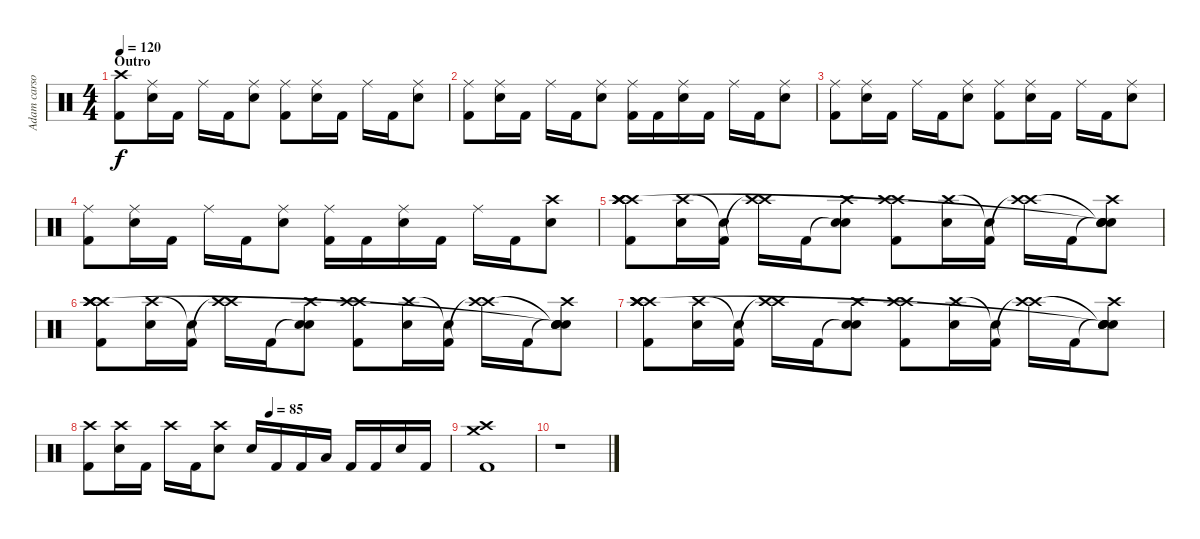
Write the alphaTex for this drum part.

\track ("Adam carson" "Adam carso") {instrument percussion}
\staff {score}
\articulation defaults
\ts (4 4)
\section ("" "Outro")
\tempo 120
\clef neutral
\ks c
("Kick (hit) 2" "Crash high (hit)").8{dy f} ("Ride (middle)" "Snare (hit) 2").16 "Kick (hit) 2".16 "Ride (middle)".16 "Kick (hit) 2".16 ("Ride (middle)" "Snare (hit) 2").8 ("Kick (hit) 2" "Ride (middle)").8 ("Ride (middle)" "Snare (hit) 2").16 "Kick (hit) 2".16 "Ride (middle)".16 "Kick (hit) 2".16 ("Ride (middle)" "Snare (hit) 2").8 |
("Kick (hit) 2" "Ride (middle)").8 ("Ride (middle)" "Snare (hit) 2").16 "Kick (hit) 2".16 "Ride (middle)".16 "Kick (hit) 2".16 ("Ride (middle)" "Snare (hit) 2").8 ("Kick (hit) 2" "Ride (middle)").16 "Kick (hit) 2".16 ("Ride (middle)" "Snare (hit) 2").16 "Kick (hit) 2".16 "Ride (middle)".16 "Kick (hit) 2".16 ("Ride (middle)" "Snare (hit) 2").8 |
("Kick (hit) 2" "Ride (middle)").8 ("Ride (middle)" "Snare (hit) 2").16 "Kick (hit) 2".16 "Ride (middle)".16 "Kick (hit) 2".16 ("Ride (middle)" "Snare (hit) 2").8 ("Kick (hit) 2" "Ride (middle)").8 ("Ride (middle)" "Snare (hit) 2").16 "Kick (hit) 2".16 "Ride (middle)".16 "Kick (hit) 2".16 ("Ride (middle)" "Snare (hit) 2").8 |
("Kick (hit) 2" "Ride (middle)").8 ("Ride (middle)" "Snare (hit) 2").16 "Kick (hit) 2".16 "Ride (middle)".16 "Kick (hit) 2".16 ("Ride (middle)" "Snare (hit) 2").8 ("Kick (hit) 2" "Ride (middle)").16 "Kick (hit) 2".16 ("Ride (middle)" "Snare (hit) 2").16 "Kick (hit) 2".16 "Ride (middle)".16 "Kick (hit) 2".16 ("Crash high (hit)" "Snare (hit) 2").8 |
("Kick (hit) 2" "Crash high (hit)" "Crash high (hit)" "Crash high (hit)" "Crash high (hit)").8 ("Snare (hit) 2" "Crash high (hit)").16 ("Kick (hit) 2" "Snare (hit)"{t}).16 ("Crash high (hit)"{t} "Crash high (hit)").16 "Kick (hit) 2".16 ("Snare (hit)"{t} "Snare (hit) 2" "Crash high (hit)").8 ("Kick (hit) 2" "Crash high (hit)" "Crash high (hit)").8 ("Snare (hit) 2" "Crash high (hit)").16 ("Kick (hit) 2" "Snare (hit)"{t}).16 ("Crash high (hit)"{t} "Crash high (hit)").16 "Kick (hit) 2".16 ("Snare (hit)"{t} "Snare (hit)"{t} "Snare (hit) 2" "Crash high (hit)" "Snare (hit)"{t}).8 |
("Kick (hit) 2" "Crash high (hit)" "Crash high (hit)" "Crash high (hit)" "Crash high (hit)").8 ("Snare (hit) 2" "Crash high (hit)").16 ("Kick (hit) 2" "Snare (hit)"{t}).16 ("Crash high (hit)"{t} "Crash high (hit)").16 "Kick (hit) 2".16 ("Snare (hit)"{t} "Snare (hit) 2" "Crash high (hit)").8 ("Kick (hit) 2" "Crash high (hit)" "Crash high (hit)").8 ("Snare (hit) 2" "Crash high (hit)").16 ("Kick (hit) 2" "Snare (hit)"{t}).16 ("Crash high (hit)"{t} "Crash high (hit)").16 "Kick (hit) 2".16 ("Snare (hit)"{t} "Snare (hit)"{t} "Snare (hit) 2" "Crash high (hit)" "Snare (hit)"{t}).8 |
("Kick (hit) 2" "Crash high (hit)" "Crash high (hit)" "Crash high (hit)" "Crash high (hit)").8 ("Snare (hit) 2" "Crash high (hit)").16 ("Kick (hit) 2" "Snare (hit)"{t}).16 ("Crash high (hit)"{t} "Crash high (hit)").16 "Kick (hit) 2".16 ("Snare (hit)"{t} "Snare (hit) 2" "Crash high (hit)").8 ("Kick (hit) 2" "Crash high (hit)" "Crash high (hit)").8 ("Snare (hit) 2" "Crash high (hit)").16 ("Kick (hit) 2" "Snare (hit)"{t}).16 ("Crash high (hit)"{t} "Crash high (hit)").16 "Kick (hit) 2".16 ("Snare (hit)"{t} "Snare (hit)"{t} "Snare (hit) 2" "Crash high (hit)" "Snare (hit)"{t}).8 |
\tempo (85 0.5)
("Kick (hit) 2" "Crash high (hit)").8 ("Snare (hit) 2" "Crash high (hit)").16 "Kick (hit) 2".16 "Crash high (hit)".16 "Kick (hit) 2".16 ("Snare (hit) 2" "Crash high (hit)").8 "Snare (hit) 2".16 "Kick (hit) 2".16 "Kick (hit) 2".16 "Low Tom (hit)".16 "Kick (hit) 2".16 "Kick (hit) 2".16 "Snare (hit) 2".16 "Kick (hit) 2".16 |
("Kick (hit) 2" "Crash high (hit)" "Crash medium (hit)").1{volume 0} |
r.1
